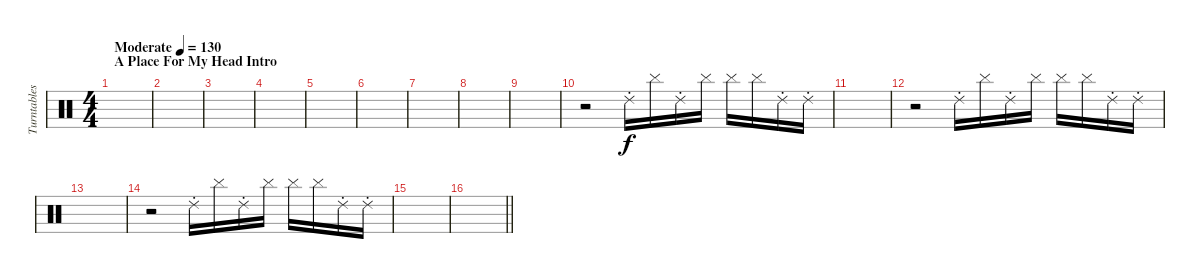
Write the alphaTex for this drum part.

\track ("Turntables - Joe Hahn" "Turntables") {instrument percussion}
\staff {score}
\articulation defaults
\ts (4 4)
\section ("" "A Place For My Head Intro")
\tempo (130 "Moderate")
\clef neutral
\ks c
|
|
|
|
|
|
|
|
|
r.2 "Ride (choke) 2".16 "Cymbal (hit)".16 "Ride (choke) 2".16 "Cymbal (hit)".16 "Cymbal (hit)".16 "Cymbal (hit)".16 "Ride (choke) 2".16 "Ride (choke) 2".16 |
|
r.2 "Ride (choke) 2".16 "Cymbal (hit)".16 "Ride (choke) 2".16 "Cymbal (hit)".16 "Cymbal (hit)".16 "Cymbal (hit)".16 "Ride (choke) 2".16 "Ride (choke) 2".16 |
|
r.2 "Ride (choke) 2".16 "Cymbal (hit)".16 "Ride (choke) 2".16 "Cymbal (hit)".16 "Cymbal (hit)".16 "Cymbal (hit)".16 "Ride (choke) 2".16 "Ride (choke) 2".16 |
|
\barLineRight lightlight
